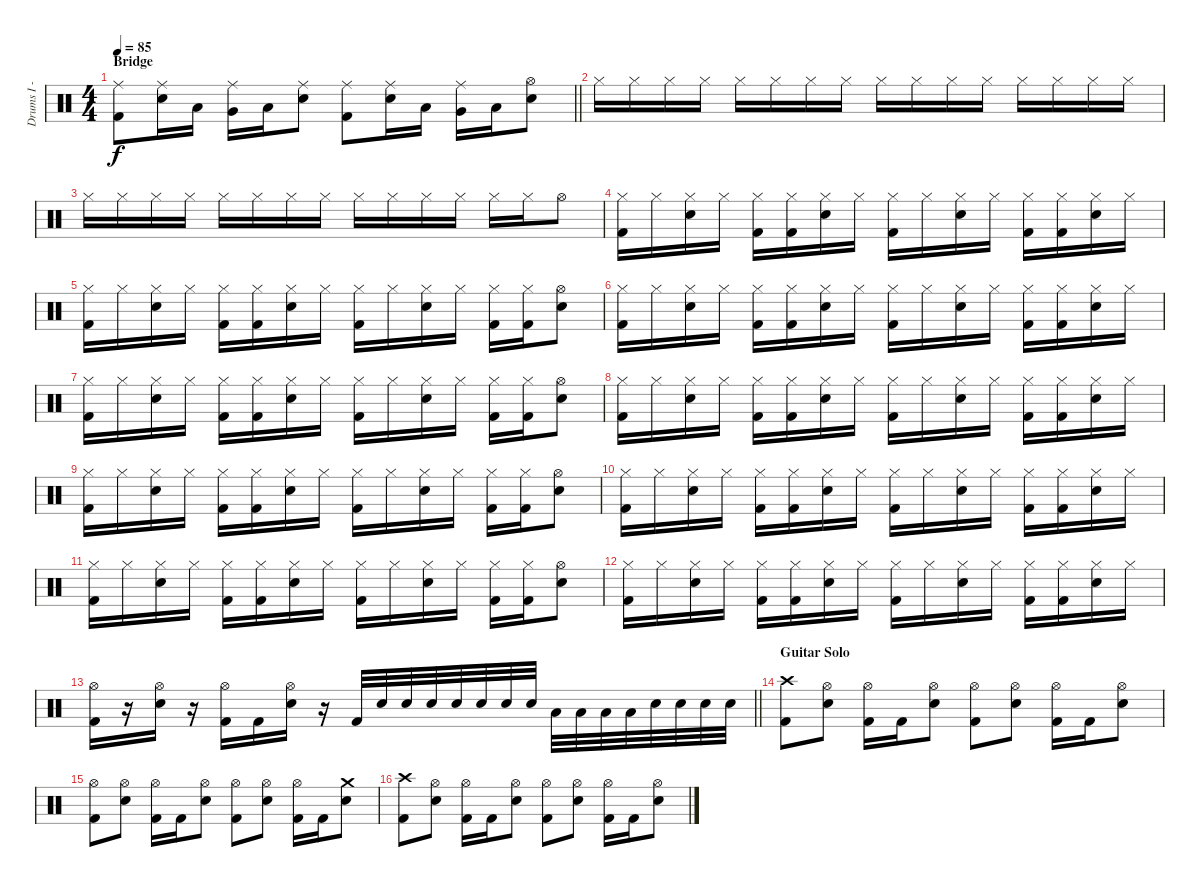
\track ("Drums I - Adam" "Drums I - ") {instrument percussion}
\staff {score}
\articulation defaults
\ts (4 4)
\section ("" "Bridge")
\tempo 85
\clef neutral
\barLineRight lightlight
\ks c
("Kick (hit) 2" "Ride (middle)").8{dy f} ("Snare (hit) 2" "Ride (middle)").16 "Low Tom (hit)".16 ("Very Low Tom (hit)" "Ride (middle)").16 "Low Floor Tom (hit)".16 ("Snare (hit) 2" "Ride (middle)").8 ("Kick (hit) 2" "Ride (middle)").8 ("Snare (hit) 2" "Ride (middle)").16 "Low Tom (hit)".16 ("Very Low Tom (hit)" "Ride (middle)").16 "Low Floor Tom (hit)".16 ("Snare (hit) 2" "Hi-Hat (open)").8 |
"Hi-Hat (closed)".16 "Hi-Hat (closed)".16 "Hi-Hat (closed)".16 "Hi-Hat (closed)".16 "Hi-Hat (closed)".16 "Hi-Hat (closed)".16 "Hi-Hat (closed)".16 "Hi-Hat (closed)".16 "Hi-Hat (closed)".16 "Hi-Hat (closed)".16 "Hi-Hat (closed)".16 "Hi-Hat (closed)".16 "Hi-Hat (closed)".16 "Hi-Hat (closed)".16 "Hi-Hat (closed)".16 "Hi-Hat (closed)".16 |
"Hi-Hat (closed)".16 "Hi-Hat (closed)".16 "Hi-Hat (closed)".16 "Hi-Hat (closed)".16 "Hi-Hat (closed)".16 "Hi-Hat (closed)".16 "Hi-Hat (closed)".16 "Hi-Hat (closed)".16 "Hi-Hat (closed)".16 "Hi-Hat (closed)".16 "Hi-Hat (closed)".16 "Hi-Hat (closed)".16 "Hi-Hat (closed)".16 "Hi-Hat (closed)".16 "Hi-Hat (open)".8 |
("Kick (hit) 2" "Hi-Hat (closed)").16 "Hi-Hat (closed)".16 ("Snare (hit) 2" "Hi-Hat (closed)").16 "Hi-Hat (closed)".16 ("Kick (hit) 2" "Hi-Hat (closed)").16 ("Kick (hit) 2" "Hi-Hat (closed)").16 ("Snare (hit) 2" "Hi-Hat (closed)").16 "Hi-Hat (closed)".16 ("Kick (hit) 2" "Hi-Hat (closed)").16 "Hi-Hat (closed)".16 ("Snare (hit) 2" "Hi-Hat (closed)").16 "Hi-Hat (closed)".16 ("Kick (hit) 2" "Hi-Hat (closed)").16 ("Kick (hit) 2" "Hi-Hat (closed)").16 ("Snare (hit) 2" "Hi-Hat (closed)").16 "Hi-Hat (closed)".16 |
("Kick (hit) 2" "Hi-Hat (closed)").16 "Hi-Hat (closed)".16 ("Snare (hit) 2" "Hi-Hat (closed)").16 "Hi-Hat (closed)".16 ("Kick (hit) 2" "Hi-Hat (closed)").16 ("Kick (hit) 2" "Hi-Hat (closed)").16 ("Snare (hit) 2" "Hi-Hat (closed)").16 "Hi-Hat (closed)".16 ("Kick (hit) 2" "Hi-Hat (closed)").16 "Hi-Hat (closed)".16 ("Snare (hit) 2" "Hi-Hat (closed)").16 "Hi-Hat (closed)".16 ("Kick (hit) 2" "Hi-Hat (closed)").16 ("Kick (hit) 2" "Hi-Hat (closed)").16 ("Snare (hit) 2" "Hi-Hat (open)").8 |
("Kick (hit) 2" "Hi-Hat (closed)").16 "Hi-Hat (closed)".16 ("Snare (hit) 2" "Hi-Hat (closed)").16 "Hi-Hat (closed)".16 ("Kick (hit) 2" "Hi-Hat (closed)").16 ("Kick (hit) 2" "Hi-Hat (closed)").16 ("Snare (hit) 2" "Hi-Hat (closed)").16 "Hi-Hat (closed)".16 ("Kick (hit) 2" "Hi-Hat (closed)").16 "Hi-Hat (closed)".16 ("Snare (hit) 2" "Hi-Hat (closed)").16 "Hi-Hat (closed)".16 ("Kick (hit) 2" "Hi-Hat (closed)").16 ("Kick (hit) 2" "Hi-Hat (closed)").16 ("Snare (hit) 2" "Hi-Hat (closed)").16 "Hi-Hat (closed)".16 |
("Kick (hit) 2" "Hi-Hat (closed)").16 "Hi-Hat (closed)".16 ("Snare (hit) 2" "Hi-Hat (closed)").16 "Hi-Hat (closed)".16 ("Kick (hit) 2" "Hi-Hat (closed)").16 ("Kick (hit) 2" "Hi-Hat (closed)").16 ("Snare (hit) 2" "Hi-Hat (closed)").16 "Hi-Hat (closed)".16 ("Kick (hit) 2" "Hi-Hat (closed)").16 "Hi-Hat (closed)".16 ("Snare (hit) 2" "Hi-Hat (closed)").16 "Hi-Hat (closed)".16 ("Kick (hit) 2" "Hi-Hat (closed)").16 ("Kick (hit) 2" "Hi-Hat (closed)").16 ("Snare (hit) 2" "Hi-Hat (open)").8 |
("Kick (hit) 2" "Hi-Hat (closed)").16 "Hi-Hat (closed)".16 ("Snare (hit) 2" "Hi-Hat (closed)").16 "Hi-Hat (closed)".16 ("Kick (hit) 2" "Hi-Hat (closed)").16 ("Kick (hit) 2" "Hi-Hat (closed)").16 ("Snare (hit) 2" "Hi-Hat (closed)").16 "Hi-Hat (closed)".16 ("Kick (hit) 2" "Hi-Hat (closed)").16 "Hi-Hat (closed)".16 ("Snare (hit) 2" "Hi-Hat (closed)").16 "Hi-Hat (closed)".16 ("Kick (hit) 2" "Hi-Hat (closed)").16 ("Kick (hit) 2" "Hi-Hat (closed)").16 ("Snare (hit) 2" "Hi-Hat (closed)").16 "Hi-Hat (closed)".16 |
("Kick (hit) 2" "Hi-Hat (closed)").16 "Hi-Hat (closed)".16 ("Snare (hit) 2" "Hi-Hat (closed)").16 "Hi-Hat (closed)".16 ("Kick (hit) 2" "Hi-Hat (closed)").16 ("Kick (hit) 2" "Hi-Hat (closed)").16 ("Snare (hit) 2" "Hi-Hat (closed)").16 "Hi-Hat (closed)".16 ("Kick (hit) 2" "Hi-Hat (closed)").16 "Hi-Hat (closed)".16 ("Snare (hit) 2" "Hi-Hat (closed)").16 "Hi-Hat (closed)".16 ("Kick (hit) 2" "Hi-Hat (closed)").16 ("Kick (hit) 2" "Hi-Hat (closed)").16 ("Snare (hit) 2" "Hi-Hat (open)").8 |
("Kick (hit) 2" "Hi-Hat (closed)").16 "Hi-Hat (closed)".16 ("Snare (hit) 2" "Hi-Hat (closed)").16 "Hi-Hat (closed)".16 ("Kick (hit) 2" "Hi-Hat (closed)").16 ("Kick (hit) 2" "Hi-Hat (closed)").16 ("Snare (hit) 2" "Hi-Hat (closed)").16 "Hi-Hat (closed)".16 ("Kick (hit) 2" "Hi-Hat (closed)").16 "Hi-Hat (closed)".16 ("Snare (hit) 2" "Hi-Hat (closed)").16 "Hi-Hat (closed)".16 ("Kick (hit) 2" "Hi-Hat (closed)").16 ("Kick (hit) 2" "Hi-Hat (closed)").16 ("Snare (hit) 2" "Hi-Hat (closed)").16 "Hi-Hat (closed)".16 |
("Kick (hit) 2" "Hi-Hat (closed)").16 "Hi-Hat (closed)".16 ("Snare (hit) 2" "Hi-Hat (closed)").16 "Hi-Hat (closed)".16 ("Kick (hit) 2" "Hi-Hat (closed)").16 ("Kick (hit) 2" "Hi-Hat (closed)").16 ("Snare (hit) 2" "Hi-Hat (closed)").16 "Hi-Hat (closed)".16 ("Kick (hit) 2" "Hi-Hat (closed)").16 "Hi-Hat (closed)".16 ("Snare (hit) 2" "Hi-Hat (closed)").16 "Hi-Hat (closed)".16 ("Kick (hit) 2" "Hi-Hat (closed)").16 ("Kick (hit) 2" "Hi-Hat (closed)").16 ("Snare (hit) 2" "Hi-Hat (open)").8 |
("Kick (hit) 2" "Hi-Hat (closed)").16 "Hi-Hat (closed)".16 ("Snare (hit) 2" "Hi-Hat (closed)").16 "Hi-Hat (closed)".16 ("Kick (hit) 2" "Hi-Hat (closed)").16 ("Kick (hit) 2" "Hi-Hat (closed)").16 ("Snare (hit) 2" "Hi-Hat (closed)").16 "Hi-Hat (closed)".16 ("Kick (hit) 2" "Hi-Hat (closed)").16 "Hi-Hat (closed)".16 ("Snare (hit) 2" "Hi-Hat (closed)").16 "Hi-Hat (closed)".16 ("Kick (hit) 2" "Hi-Hat (closed)").16 ("Kick (hit) 2" "Hi-Hat (closed)").16 ("Snare (hit) 2" "Hi-Hat (closed)").16 "Hi-Hat (closed)".16 |
\barLineRight lightlight
("Kick (hit) 2" "Hi-Hat (open)").16 r.16 ("Snare (hit) 2" "Hi-Hat (open)").16 r.16 ("Kick (hit) 2" "Hi-Hat (open)").16 "Kick (hit) 2".16 ("Snare (hit) 2" "Hi-Hat (open)").16 r.16 "Kick (hit) 2".32 "Snare (hit) 2".32 "Snare (hit) 2".32 "Snare (hit) 2".32 "Snare (hit) 2".32 "Snare (hit) 2".32 "Snare (hit) 2".32 "Snare (hit) 2".32 "Low Floor Tom (hit)".32 "Low Floor Tom (hit)".32 "Low Floor Tom (hit)".32 "Low Floor Tom (hit)".32 "Snare (hit) 2".32 "Snare (hit) 2".32 "Snare (hit) 2".32 "Snare (hit) 2".32 |
\section ("" "Guitar Solo")
("Kick (hit) 2" "Crash high (hit)").8 ("Snare (hit) 2" "Hi-Hat (open)").8 ("Kick (hit) 2" "Hi-Hat (open)").16 "Kick (hit) 2".16 ("Snare (hit) 2" "Hi-Hat (open)").8 ("Kick (hit) 2" "Hi-Hat (open)").8 ("Snare (hit) 2" "Hi-Hat (open)").8 ("Kick (hit) 2" "Hi-Hat (open)").16 "Kick (hit) 2".16 ("Snare (hit) 2" "Hi-Hat (open)").8 |
("Kick (hit) 2" "Hi-Hat (open)").8 ("Snare (hit) 2" "Hi-Hat (open)").8 ("Kick (hit) 2" "Hi-Hat (open)").16 "Kick (hit) 2".16 ("Snare (hit) 2" "Hi-Hat (open)").8 ("Kick (hit) 2" "Hi-Hat (open)").8 ("Snare (hit) 2" "Hi-Hat (open)").8 ("Kick (hit) 2" "Hi-Hat (open)").16 "Kick (hit) 2".16 ("Snare (hit) 2" "Crash medium (hit)").8 |
("Kick (hit) 2" "Crash high (hit)").8 ("Snare (hit) 2" "Hi-Hat (open)").8 ("Kick (hit) 2" "Hi-Hat (open)").16 "Kick (hit) 2".16 ("Snare (hit) 2" "Hi-Hat (open)").8 ("Kick (hit) 2" "Hi-Hat (open)").8 ("Snare (hit) 2" "Hi-Hat (open)").8 ("Kick (hit) 2" "Hi-Hat (open)").16 "Kick (hit) 2".16 ("Snare (hit) 2" "Hi-Hat (open)").8
